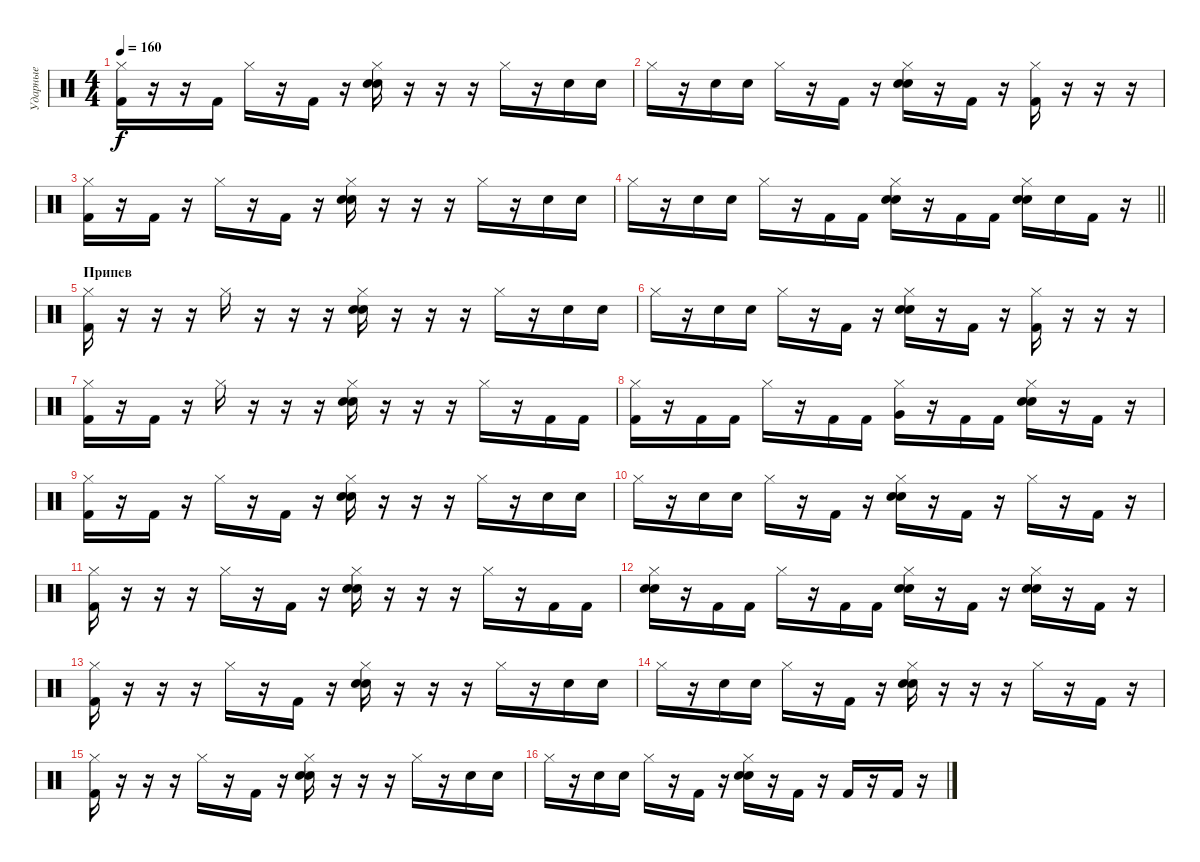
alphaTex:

\track ("Ударные" "Ударные") {instrument percussion}
\staff {score}
\articulation defaults
\ts (4 4)
\tempo 160
\clef neutral
\ks c
("Hi-Hat (closed)" "Kick (hit) 2").16{dy f} r.16 r.16 "Kick (hit) 2".16 "Hi-Hat (closed)".16 r.16 "Kick (hit) 2".16 r.16 ("Hi-Hat (closed)" "Electric Snare (hit)" "Snare (hit) 2").16 r.16 r.16 r.16 "Hi-Hat (closed)".16 r.16 "Electric Snare (hit)".16 "Electric Snare (hit)".16 |
"Hi-Hat (closed)".16 r.16 "Electric Snare (hit)".16 "Electric Snare (hit)".16 "Hi-Hat (closed)".16 r.16 "Kick (hit) 2".16 r.16 ("Hi-Hat (closed)" "Electric Snare (hit)" "Snare (hit) 2").16 r.16 "Kick (hit) 2".16 r.16 ("Hi-Hat (closed)" "Kick (hit) 2").16 r.16 r.16 r.16 |
("Hi-Hat (closed)" "Kick (hit) 2").16 r.16 "Kick (hit) 2".16 r.16 "Hi-Hat (closed)".16 r.16 "Kick (hit) 2".16 r.16 ("Hi-Hat (closed)" "Electric Snare (hit)" "Snare (hit) 2").16 r.16 r.16 r.16 "Hi-Hat (closed)".16 r.16 "Electric Snare (hit)".16 "Electric Snare (hit)".16 |
\barLineRight lightlight "Hi-Hat (closed)".16
r.16 "Electric Snare (hit)".16 "Electric Snare (hit)".16 "Hi-Hat (closed)".16 r.16 "Kick (hit) 2".16 "Kick (hit) 2".16 ("Hi-Hat (closed)" "Electric Snare (hit)" "Snare (hit) 2").16 r.16 "Kick (hit) 2".16 "Kick (hit) 2".16 ("Hi-Hat (closed)" "Electric Snare (hit)" "Snare (hit) 2").16 "Electric Snare (hit)".16 "Kick (hit) 2".16 r.16 |
\section ("" "Припев")
("Hi-Hat (closed)" "Kick (hit) 2").16 r.16 r.16 r.16 "Hi-Hat (closed)".16 r.16 r.16 r.16 ("Hi-Hat (closed)" "Electric Snare (hit)" "Snare (hit) 2").16 r.16 r.16 r.16 "Hi-Hat (closed)".16 r.16 "Electric Snare (hit)".16 "Electric Snare (hit)".16 |
"Hi-Hat (closed)".16 r.16 "Electric Snare (hit)".16 "Electric Snare (hit)".16 "Hi-Hat (closed)".16 r.16 "Kick (hit) 2".16 r.16 ("Hi-Hat (closed)" "Electric Snare (hit)" "Snare (hit) 2").16 r.16 "Kick (hit) 2".16 r.16 ("Hi-Hat (closed)" "Kick (hit) 2").16 r.16 r.16 r.16 |
("Hi-Hat (closed)" "Kick (hit) 2").16 r.16 "Kick (hit) 2".16 r.16 "Hi-Hat (closed)".16 r.16 r.16 r.16 ("Hi-Hat (closed)" "Electric Snare (hit)" "Snare (hit) 2").16 r.16 r.16 r.16 "Hi-Hat (closed)".16 r.16 "Kick (hit) 2".16 "Kick (hit) 2".16 |
("Hi-Hat (closed)" "Kick (hit) 2").16 r.16 "Kick (hit) 2".16 "Kick (hit) 2".16 "Hi-Hat (closed)".16 r.16 "Kick (hit) 2".16 "Kick (hit) 2".16 ("Hi-Hat (closed)" "Very Low Tom (hit)").16 r.16 "Kick (hit) 2".16 "Kick (hit) 2".16 ("Hi-Hat (closed)" "Electric Snare (hit)" "Snare (hit) 2").16 r.16 "Kick (hit) 2".16 r.16 |
("Hi-Hat (closed)" "Kick (hit) 2").16 r.16 "Kick (hit) 2".16 r.16 "Hi-Hat (closed)".16 r.16 "Kick (hit) 2".16 r.16 ("Hi-Hat (closed)" "Electric Snare (hit)" "Snare (hit) 2").16 r.16 r.16 r.16 "Hi-Hat (closed)".16 r.16 "Electric Snare (hit)".16 "Electric Snare (hit)".16 |
"Hi-Hat (closed)".16 r.16 "Electric Snare (hit)".16 "Electric Snare (hit)".16 "Hi-Hat (closed)".16 r.16 "Kick (hit) 2".16 r.16 ("Hi-Hat (closed)" "Electric Snare (hit)" "Snare (hit) 2").16 r.16 "Kick (hit) 2".16 r.16 "Hi-Hat (closed)".16 r.16 "Kick (hit) 2".16 r.16 |
("Hi-Hat (closed)" "Kick (hit) 2").16 r.16 r.16 r.16 "Hi-Hat (closed)".16 r.16 "Kick (hit) 2".16 r.16 ("Hi-Hat (closed)" "Electric Snare (hit)" "Snare (hit) 2").16 r.16 r.16 r.16 "Hi-Hat (closed)".16 r.16 "Kick (hit) 2".16 "Kick (hit) 2".16 |
("Hi-Hat (closed)" "Electric Snare (hit)" "Snare (hit) 2").16 r.16 "Kick (hit) 2".16 "Kick (hit) 2".16 "Hi-Hat (closed)".16 r.16 "Kick (hit) 2".16 "Kick (hit) 2".16 ("Hi-Hat (closed)" "Electric Snare (hit)" "Snare (hit) 2").16 r.16 "Kick (hit) 2".16 r.16 ("Hi-Hat (closed)" "Electric Snare (hit)" "Snare (hit) 2").16 r.16 "Kick (hit) 2".16 r.16 |
("Hi-Hat (closed)" "Kick (hit) 2").16 r.16 r.16 r.16 "Hi-Hat (closed)".16 r.16 "Kick (hit) 2".16 r.16 ("Hi-Hat (closed)" "Electric Snare (hit)" "Snare (hit) 2").16 r.16 r.16 r.16 "Hi-Hat (closed)".16 r.16 "Electric Snare (hit)".16 "Electric Snare (hit)".16 |
"Hi-Hat (closed)".16 r.16 "Electric Snare (hit)".16 "Electric Snare (hit)".16 "Hi-Hat (closed)".16 r.16 "Kick (hit) 2".16 r.16 ("Hi-Hat (closed)" "Electric Snare (hit)" "Snare (hit) 2").16 r.16 r.16 r.16 "Hi-Hat (closed)".16 r.16 "Kick (hit) 2".16 r.16 |
("Hi-Hat (closed)" "Kick (hit) 2").16 r.16 r.16 r.16 "Hi-Hat (closed)".16 r.16 "Kick (hit) 2".16 r.16 ("Hi-Hat (closed)" "Electric Snare (hit)" "Snare (hit) 2").16 r.16 r.16 r.16 "Hi-Hat (closed)".16 r.16 "Electric Snare (hit)".16 "Electric Snare (hit)".16 |
"Hi-Hat (closed)".16 r.16 "Electric Snare (hit)".16 "Electric Snare (hit)".16 "Hi-Hat (closed)".16 r.16 "Kick (hit) 2".16 r.16 ("Hi-Hat (closed)" "Electric Snare (hit)" "Snare (hit) 2").16 r.16 "Kick (hit) 2".16 r.16 "Kick (hit) 2".16 r.16 "Kick (hit) 2".16 r.16
